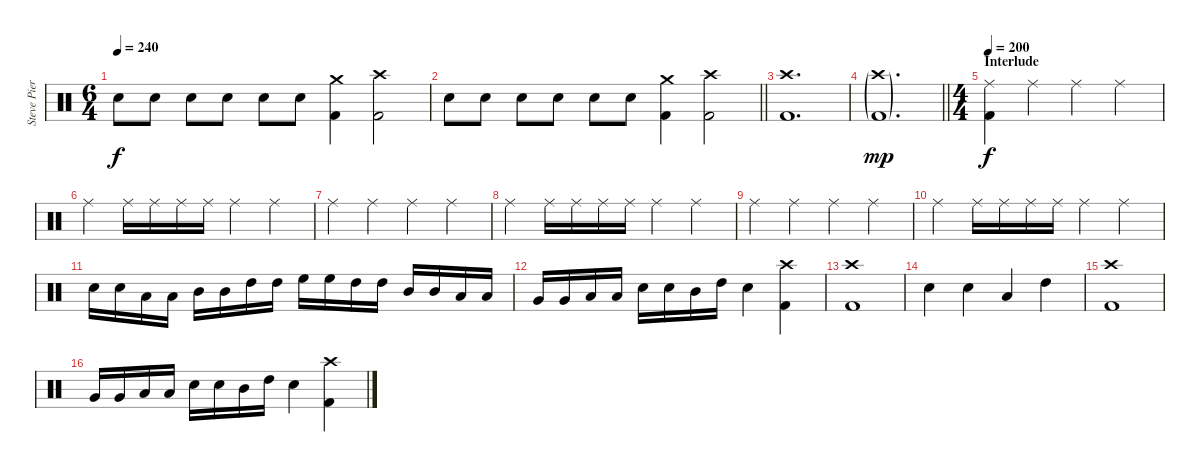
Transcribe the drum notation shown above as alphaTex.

\track ("Steve Pierce" "Steve Pier") {instrument percussion}
\staff {score}
\articulation defaults
\ts (6 4)
\tempo 240
\clef neutral
\ks c "Snare (hit) 2".8{dy f} "Snare (hit) 2".8 "Snare (hit) 2".8 "Snare (hit) 2".8 "Snare (hit) 2".8 "Snare (hit) 2".8
("Crash medium (hit)" "Kick (hit) 2").4 ("Crash high (hit)" "Kick (hit) 2").2 |
\barLineRight lightlight "Snare (hit) 2".8 "Snare (hit) 2".8 "Snare (hit) 2".8 "Snare (hit) 2".8 "Snare (hit) 2".8 "Snare (hit) 2".8
("Crash medium (hit)" "Kick (hit) 2").4 ("Crash high (hit)" "Kick (hit) 2").2 |
("Crash high (hit)" "Kick (hit) 2").1{d} |
\barLineRight lightlight
("Crash high (hit)"{g} "Kick (hit) 2"{g}).1{d dy mp} |
\ts (4 4)
\section ("" "Interlude")
\tempo 200
("Ride (middle)" "Kick (hit) 2").4{dy f} "Ride (middle)".4 "Ride (middle)".4 "Ride (middle)".4 |
"Ride (middle)".4 "Ride (middle)".16 "Ride (middle)".16 "Ride (middle)".16 "Ride (middle)".16 "Ride (middle)".4 "Ride (middle)".4 |
"Ride (middle)".4 "Ride (middle)".4 "Ride (middle)".4 "Ride (middle)".4 |
"Ride (middle)".4 "Ride (middle)".16 "Ride (middle)".16 "Ride (middle)".16 "Ride (middle)".16 "Ride (middle)".4 "Ride (middle)".4 |
"Ride (middle)".4 "Ride (middle)".4 "Ride (middle)".4 "Ride (middle)".4 |
"Ride (middle)".4 "Ride (middle)".16 "Ride (middle)".16 "Ride (middle)".16 "Ride (middle)".16 "Ride (middle)".4 "Ride (middle)".4 |
"Snare (hit) 2".16 "Snare (hit) 2".16 "Low Tom (hit)".16 "Low Tom (hit)".16 "Mid Tom (hit)".16 "Mid Tom (hit)".16 "High Tom (hit)".16 "High Tom (hit)".16 "High Floor Tom (hit)".16 "High Floor Tom (hit)".16 "High Tom (hit)".16 "High Tom (hit)".16 "Mid Tom (hit)".16 "Mid Tom (hit)".16 "Low Tom (hit)".16 "Low Tom (hit)".16 |
"Very Low Tom (hit)".16 "Very Low Tom (hit)".16 "Low Tom (hit)".16 "Low Tom (hit)".16 "Snare (hit) 2".16 "Snare (hit) 2".16 "Mid Tom (hit)".16 "High Tom (hit)".16 "Snare (hit) 2".4 ("Crash high (hit)" "Kick (hit) 2").4 |
("Crash high (hit)" "Kick (hit) 2").1 |
"Snare (hit) 2".4 "Snare (hit) 2".4 "Low Tom (hit)".4 "High Tom (hit)".4 |
("Crash high (hit)" "Kick (hit) 2").1 |
"Very Low Tom (hit)".16 "Very Low Tom (hit)".16 "Low Tom (hit)".16 "Low Tom (hit)".16 "Snare (hit) 2".16 "Snare (hit) 2".16 "Mid Tom (hit)".16 "High Tom (hit)".16 "Snare (hit) 2".4 ("Crash high (hit)" "Kick (hit) 2").4
